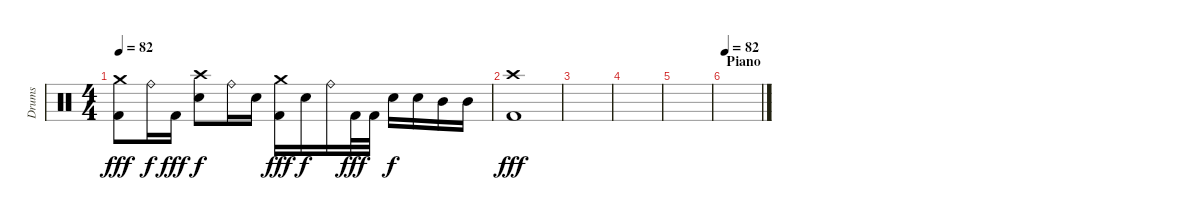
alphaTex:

\track ("Drums" "Drums") {instrument percussion}
\staff {score}
\articulation defaults
\ts (4 4)
\tempo 82
\clef neutral
\ks c
("Crash medium (hit)" "Kick (hit) 2").8{dy fff} "Ride (bell)".16{dy f} "Kick (hit) 2".16{dy fff} ("Crash high (hit)" "Snare (hit) 2").8{dy f} "Ride (bell)".16 "Snare (hit) 2".16 ("Crash medium (hit)" "Kick (hit) 2").16{dy fff} "Snare (hit) 2".16{dy f} "Ride (bell)".16 "Kick (hit) 2".32{dy fff} "Kick (hit) 2".32 "Snare (hit) 2".16{dy f} "Snare (hit) 2".16 "Mid Tom (hit)".16 "Mid Tom (hit)".16 |
("Crash high (hit)" "Kick (hit) 2").1{dy fff} |
|
|
|
\section ("" "Piano")
\tempo 82
